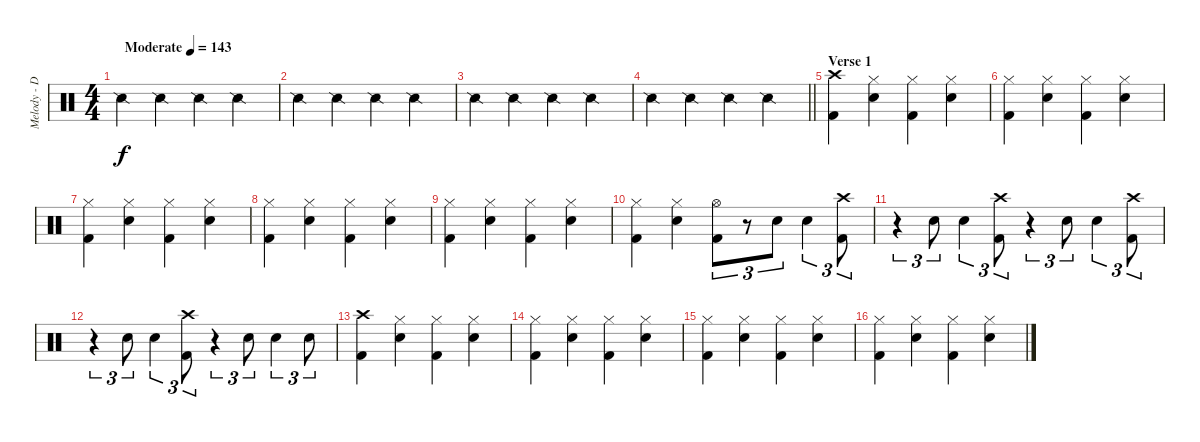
\track ("Melody - Drums" "Melody - D") {instrument percussion}
\staff {score}
\articulation defaults
\ts (4 4)
\tempo (143 "Moderate")
\clef neutral
\ks c "Snare (side stick) 2".4{dy f} "Snare (side stick) 2".4 "Snare (side stick) 2".4 "Snare (side stick) 2".4
|
"Snare (side stick) 2".4 "Snare (side stick) 2".4 "Snare (side stick) 2".4 "Snare (side stick) 2".4 |
"Snare (side stick) 2".4 "Snare (side stick) 2".4 "Snare (side stick) 2".4 "Snare (side stick) 2".4 |
\barLineRight lightlight "Snare (side stick) 2".4 "Snare (side stick) 2".4 "Snare (side stick) 2".4 "Snare (side stick) 2".4
|
\section ("" "Verse 1")
("Crash high (hit)" "Kick (hit) 2").4 ("Hi-Hat (closed)" "Electric Snare (hit)").4 ("Hi-Hat (closed)" "Kick (hit) 2").4 ("Hi-Hat (closed)" "Electric Snare (hit)").4 |
("Hi-Hat (closed)" "Kick (hit) 2").4 ("Hi-Hat (closed)" "Electric Snare (hit)").4 ("Hi-Hat (closed)" "Kick (hit) 2").4 ("Hi-Hat (closed)" "Electric Snare (hit)").4 |
("Hi-Hat (closed)" "Kick (hit) 2").4 ("Hi-Hat (closed)" "Electric Snare (hit)").4 ("Hi-Hat (closed)" "Kick (hit) 2").4 ("Hi-Hat (closed)" "Electric Snare (hit)").4 |
("Hi-Hat (closed)" "Kick (hit) 2").4 ("Hi-Hat (closed)" "Electric Snare (hit)").4 ("Hi-Hat (closed)" "Kick (hit) 2").4 ("Hi-Hat (closed)" "Electric Snare (hit)").4 |
("Hi-Hat (closed)" "Kick (hit) 2").4 ("Hi-Hat (closed)" "Electric Snare (hit)").4 ("Hi-Hat (closed)" "Kick (hit) 2").4 ("Hi-Hat (closed)" "Electric Snare (hit)").4 |
("Hi-Hat (closed)" "Kick (hit) 2").4 ("Hi-Hat (closed)" "Electric Snare (hit)").4 ("Hi-Hat (open)" "Kick (hit) 2").8{tu (3 2)} r.8{tu (3 2)} "Electric Snare (hit)".8{tu (3 2)} "Electric Snare (hit)".4{tu (3 2)} ("Crash high (hit)" "Kick (hit) 2").8{tu (3 2)} |
r.4{tu (3 2)} "Electric Snare (hit)".8{tu (3 2)} "Electric Snare (hit)".4{tu (3 2)} ("Crash high (hit)" "Kick (hit) 2").8{tu (3 2)} r.4{tu (3 2)} "Electric Snare (hit)".8{tu (3 2)} "Electric Snare (hit)".4{tu (3 2)} ("Crash high (hit)" "Kick (hit) 2").8{tu (3 2)} |
r.4{tu (3 2)} "Electric Snare (hit)".8{tu (3 2)} "Electric Snare (hit)".4{tu (3 2)} ("Crash high (hit)" "Kick (hit) 2").8{tu (3 2)} r.4{tu (3 2)} "Electric Snare (hit)".8{tu (3 2)} "Electric Snare (hit)".4{tu (3 2)} "Electric Snare (hit)".8{tu (3 2)} |
("Crash high (hit)" "Kick (hit) 2").4 ("Hi-Hat (closed)" "Electric Snare (hit)").4 ("Hi-Hat (closed)" "Kick (hit) 2").4 ("Hi-Hat (closed)" "Electric Snare (hit)").4 |
("Hi-Hat (closed)" "Kick (hit) 2").4 ("Hi-Hat (closed)" "Electric Snare (hit)").4 ("Hi-Hat (closed)" "Kick (hit) 2").4 ("Hi-Hat (closed)" "Electric Snare (hit)").4 |
("Hi-Hat (closed)" "Kick (hit) 2").4 ("Hi-Hat (closed)" "Electric Snare (hit)").4 ("Hi-Hat (closed)" "Kick (hit) 2").4 ("Hi-Hat (closed)" "Electric Snare (hit)").4 |
("Hi-Hat (closed)" "Kick (hit) 2").4 ("Hi-Hat (closed)" "Electric Snare (hit)").4 ("Hi-Hat (closed)" "Kick (hit) 2").4 ("Hi-Hat (closed)" "Electric Snare (hit)").4
